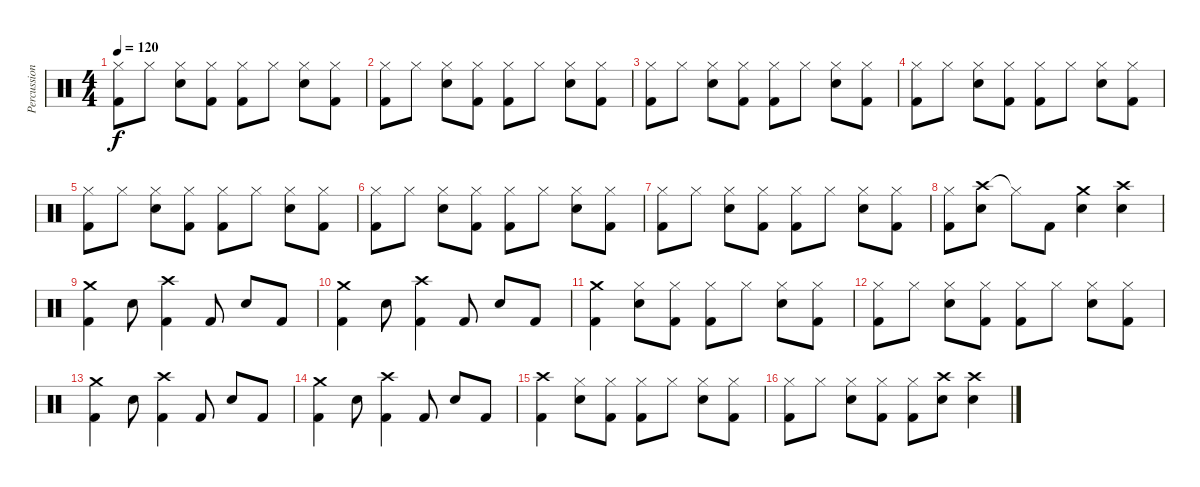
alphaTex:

\track ("Percussion" "Percussion") {instrument percussion}
\staff {score}
\articulation defaults
\ts (4 4)
\tempo 120
\clef neutral
\ks c
("Hi-Hat (closed)" "Kick (hit) 2").8{dy f} "Hi-Hat (closed)".8 ("Hi-Hat (closed)" "Electric Snare (hit)").8 ("Hi-Hat (closed)" "Kick (hit) 2").8 ("Hi-Hat (closed)" "Kick (hit) 2").8 "Hi-Hat (closed)".8 ("Hi-Hat (closed)" "Electric Snare (hit)").8 ("Hi-Hat (closed)" "Kick (hit) 2").8 |
("Hi-Hat (closed)" "Kick (hit) 2").8 "Hi-Hat (closed)".8 ("Hi-Hat (closed)" "Electric Snare (hit)").8 ("Hi-Hat (closed)" "Kick (hit) 2").8 ("Hi-Hat (closed)" "Kick (hit) 2").8 "Hi-Hat (closed)".8 ("Hi-Hat (closed)" "Electric Snare (hit)").8 ("Hi-Hat (closed)" "Kick (hit) 2").8 |
("Hi-Hat (closed)" "Kick (hit) 2").8 "Hi-Hat (closed)".8 ("Hi-Hat (closed)" "Electric Snare (hit)").8 ("Hi-Hat (closed)" "Kick (hit) 2").8 ("Hi-Hat (closed)" "Kick (hit) 2").8 "Hi-Hat (closed)".8 ("Hi-Hat (closed)" "Electric Snare (hit)").8 ("Hi-Hat (closed)" "Kick (hit) 2").8 |
("Hi-Hat (closed)" "Kick (hit) 2").8 "Hi-Hat (closed)".8 ("Hi-Hat (closed)" "Electric Snare (hit)").8 ("Hi-Hat (closed)" "Kick (hit) 2").8 ("Hi-Hat (closed)" "Kick (hit) 2").8 "Hi-Hat (closed)".8 ("Hi-Hat (closed)" "Electric Snare (hit)").8 ("Hi-Hat (closed)" "Kick (hit) 2").8 |
("Hi-Hat (closed)" "Kick (hit) 2").8 "Hi-Hat (closed)".8 ("Hi-Hat (closed)" "Electric Snare (hit)").8 ("Hi-Hat (closed)" "Kick (hit) 2").8 ("Hi-Hat (closed)" "Kick (hit) 2").8 "Hi-Hat (closed)".8 ("Hi-Hat (closed)" "Electric Snare (hit)").8 ("Hi-Hat (closed)" "Kick (hit) 2").8 |
("Hi-Hat (closed)" "Kick (hit) 2").8 "Hi-Hat (closed)".8 ("Hi-Hat (closed)" "Electric Snare (hit)").8 ("Hi-Hat (closed)" "Kick (hit) 2").8 ("Hi-Hat (closed)" "Kick (hit) 2").8 "Hi-Hat (closed)".8 ("Hi-Hat (closed)" "Electric Snare (hit)").8 ("Hi-Hat (closed)" "Kick (hit) 2").8 |
("Hi-Hat (closed)" "Kick (hit) 2").8 "Hi-Hat (closed)".8 ("Hi-Hat (closed)" "Electric Snare (hit)").8 ("Hi-Hat (closed)" "Kick (hit) 2").8 ("Hi-Hat (closed)" "Kick (hit) 2").8 "Hi-Hat (closed)".8 ("Hi-Hat (closed)" "Electric Snare (hit)").8 ("Hi-Hat (closed)" "Kick (hit) 2").8 |
("Hi-Hat (closed)" "Kick (hit) 2").8 ("Crash high (hit)" "Electric Snare (hit)").8 "Hi-Hat (closed)"{t}.8 "Kick (hit) 2".8 ("Crash medium (hit)" "Electric Snare (hit)").4 ("Crash high (hit)" "Electric Snare (hit)").4 |
("Crash medium (hit)" "Kick (hit) 2").4 "Electric Snare (hit)".8 ("Crash high (hit)" "Kick (hit) 2").4 "Kick (hit) 2".8 "Electric Snare (hit)".8 "Kick (hit) 2".8 |
("Crash medium (hit)" "Kick (hit) 2").4 "Electric Snare (hit)".8 ("Crash high (hit)" "Kick (hit) 2").4 "Kick (hit) 2".8 "Electric Snare (hit)".8 "Kick (hit) 2".8 |
("Crash medium (hit)" "Kick (hit) 2").4 ("Hi-Hat (closed)" "Electric Snare (hit)").8 ("Hi-Hat (closed)" "Kick (hit) 2").8 ("Hi-Hat (closed)" "Kick (hit) 2").8 "Hi-Hat (closed)".8 ("Hi-Hat (closed)" "Electric Snare (hit)").8 ("Hi-Hat (closed)" "Kick (hit) 2").8 |
("Hi-Hat (closed)" "Kick (hit) 2").8 "Hi-Hat (closed)".8 ("Hi-Hat (closed)" "Electric Snare (hit)").8 ("Hi-Hat (closed)" "Kick (hit) 2").8 ("Hi-Hat (closed)" "Kick (hit) 2").8 "Hi-Hat (closed)".8 ("Hi-Hat (closed)" "Electric Snare (hit)").8 ("Hi-Hat (closed)" "Kick (hit) 2").8 |
("Crash medium (hit)" "Kick (hit) 2").4 "Electric Snare (hit)".8 ("Crash high (hit)" "Kick (hit) 2").4 "Kick (hit) 2".8 "Electric Snare (hit)".8 "Kick (hit) 2".8 |
("Crash medium (hit)" "Kick (hit) 2").4 "Electric Snare (hit)".8 ("Crash high (hit)" "Kick (hit) 2").4 "Kick (hit) 2".8 "Electric Snare (hit)".8 "Kick (hit) 2".8 |
("Crash high (hit)" "Kick (hit) 2").4 ("Hi-Hat (closed)" "Electric Snare (hit)").8 ("Hi-Hat (closed)" "Kick (hit) 2").8 ("Hi-Hat (closed)" "Kick (hit) 2").8 "Hi-Hat (closed)".8 ("Hi-Hat (closed)" "Electric Snare (hit)").8 ("Hi-Hat (closed)" "Kick (hit) 2").8 |
("Hi-Hat (closed)" "Kick (hit) 2").8 "Hi-Hat (closed)".8 ("Hi-Hat (closed)" "Electric Snare (hit)").8 ("Hi-Hat (closed)" "Kick (hit) 2").8 ("Hi-Hat (closed)" "Kick (hit) 2").8 ("Crash high (hit)" "Electric Snare (hit)").8 ("Crash high (hit)" "Electric Snare (hit)").4
